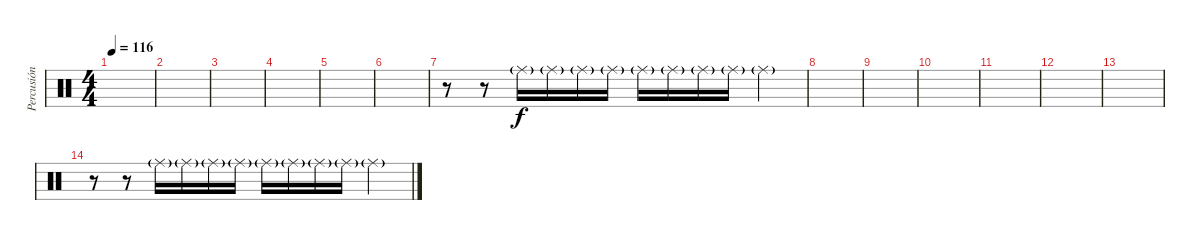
\track ("Percusión" "Percusión") {instrument percussion}
\staff {score}
\articulation defaults
\ts (4 4)
\tempo 116
\clef neutral
\ks c
|
|
|
|
|
|
r.8 r.8 "Ride (middle)"{g}.16 "Ride (middle)"{g}.16 "Ride (middle)"{g}.16 "Ride (middle)"{g}.16 "Ride (middle)"{g}.16 "Ride (middle)"{g}.16 "Ride (middle)"{g}.16 "Ride (middle)"{g}.16 "Ride (middle)"{g}.4 |
|
|
|
|
|
|
r.8 r.8 "Ride (middle)"{g}.16 "Ride (middle)"{g}.16 "Ride (middle)"{g}.16 "Ride (middle)"{g}.16 "Ride (middle)"{g}.16 "Ride (middle)"{g}.16 "Ride (middle)"{g}.16 "Ride (middle)"{g}.16 "Ride (middle)"{g}.4
